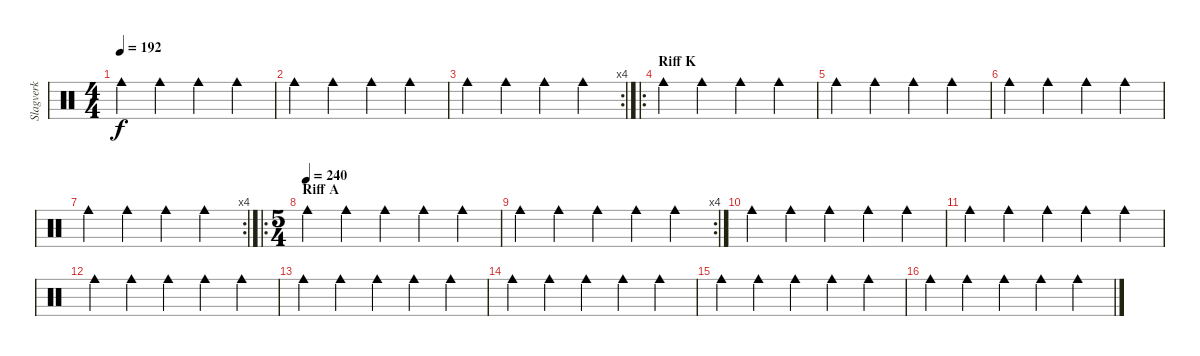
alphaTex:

\track ("Slagverk" "Slagverk") {instrument percussion}
\staff {score}
\articulation defaults
\ts (4 4)
\tempo 192
\clef neutral
\ks c "Cowbell medium (hit)".4{dy f} "Cowbell medium (hit)".4 "Cowbell medium (hit)".4 "Cowbell medium (hit)".4
|
"Cowbell medium (hit)".4 "Cowbell medium (hit)".4 "Cowbell medium (hit)".4 "Cowbell medium (hit)".4 |
\rc 4 "Cowbell medium (hit)".4 "Cowbell medium (hit)".4 "Cowbell medium (hit)".4 "Cowbell medium (hit)".4
|
\ro
\section ("" "Riff K")
"Cowbell medium (hit)".4 "Cowbell medium (hit)".4 "Cowbell medium (hit)".4 "Cowbell medium (hit)".4 |
"Cowbell medium (hit)".4 "Cowbell medium (hit)".4 "Cowbell medium (hit)".4 "Cowbell medium (hit)".4 |
"Cowbell medium (hit)".4 "Cowbell medium (hit)".4 "Cowbell medium (hit)".4 "Cowbell medium (hit)".4 |
\rc 4 "Cowbell medium (hit)".4 "Cowbell medium (hit)".4 "Cowbell medium (hit)".4 "Cowbell medium (hit)".4
|
\ro
\ts (5 4)
\section ("" "Riff A")
\tempo (240)
"Cowbell medium (hit)".4 "Cowbell medium (hit)".4 "Cowbell medium (hit)".4 "Cowbell medium (hit)".4 "Cowbell medium (hit)".4 |
\rc 4 "Cowbell medium (hit)".4 "Cowbell medium (hit)".4 "Cowbell medium (hit)".4 "Cowbell medium (hit)".4 "Cowbell medium (hit)".4
|
"Cowbell medium (hit)".4 "Cowbell medium (hit)".4 "Cowbell medium (hit)".4 "Cowbell medium (hit)".4 "Cowbell medium (hit)".4 |
"Cowbell medium (hit)".4 "Cowbell medium (hit)".4 "Cowbell medium (hit)".4 "Cowbell medium (hit)".4 "Cowbell medium (hit)".4 |
"Cowbell medium (hit)".4 "Cowbell medium (hit)".4 "Cowbell medium (hit)".4 "Cowbell medium (hit)".4 "Cowbell medium (hit)".4 |
"Cowbell medium (hit)".4 "Cowbell medium (hit)".4 "Cowbell medium (hit)".4 "Cowbell medium (hit)".4 "Cowbell medium (hit)".4 |
"Cowbell medium (hit)".4 "Cowbell medium (hit)".4 "Cowbell medium (hit)".4 "Cowbell medium (hit)".4 "Cowbell medium (hit)".4 |
"Cowbell medium (hit)".4 "Cowbell medium (hit)".4 "Cowbell medium (hit)".4 "Cowbell medium (hit)".4 "Cowbell medium (hit)".4 |
"Cowbell medium (hit)".4 "Cowbell medium (hit)".4 "Cowbell medium (hit)".4 "Cowbell medium (hit)".4 "Cowbell medium (hit)".4
